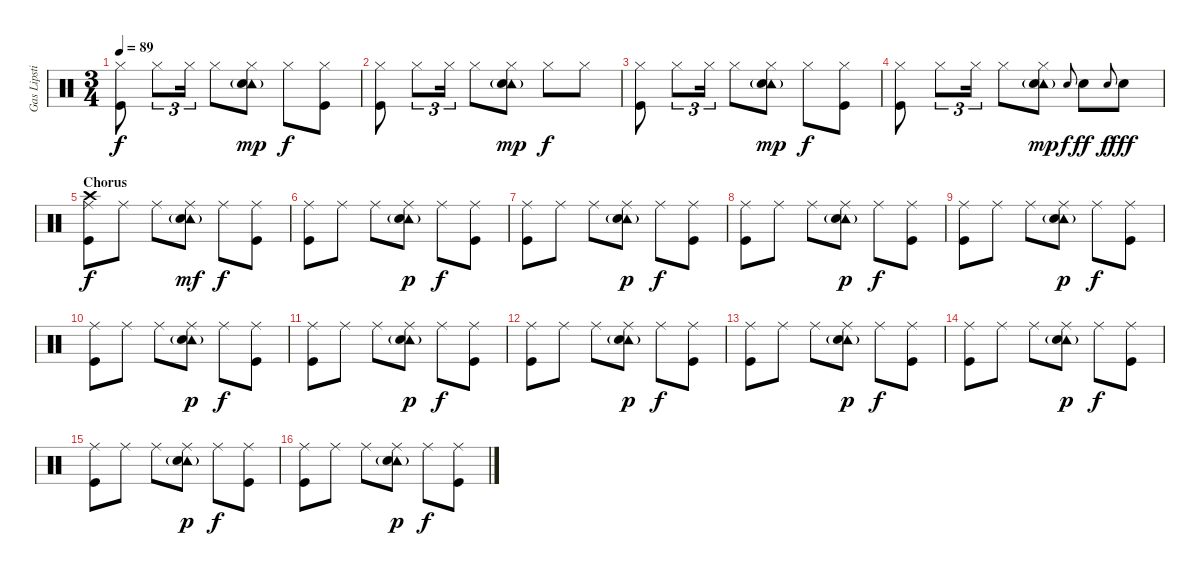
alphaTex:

\track ("Gas Lipstick (Drums)" "Gas Lipsti") {instrument percussion}
\staff {score}
\articulation defaults
\ts (3 4)
\tempo 89
\clef neutral
\ks c
("Hi-Hat (closed)" "Kick (hit)").8{dy f} "Hi-Hat (closed)".8{tu (3 2)} "Hi-Hat (closed)".16{tu (3 2)} "Hi-Hat (closed)".8 ("Tambourine (hit)"{g} "Hi-Hat (closed)" "Snare (hit) 2").8{dy mp} "Hi-Hat (closed)".8{dy f} ("Hi-Hat (closed)" "Kick (hit)").8 |
("Hi-Hat (closed)" "Kick (hit)").8 "Hi-Hat (closed)".8{tu (3 2)} "Hi-Hat (closed)".16{tu (3 2)} "Hi-Hat (closed)".8 ("Tambourine (hit)"{g} "Hi-Hat (closed)" "Snare (hit) 2").8{dy mp} "Hi-Hat (closed)".8{dy f} "Hi-Hat (closed)".8 |
("Hi-Hat (closed)" "Kick (hit)").8 "Hi-Hat (closed)".8{tu (3 2)} "Hi-Hat (closed)".16{tu (3 2)} "Hi-Hat (closed)".8 ("Tambourine (hit)"{g} "Hi-Hat (closed)" "Snare (hit) 2").8{dy mp} "Hi-Hat (closed)".8{dy f} ("Hi-Hat (closed)" "Kick (hit)").8 |
("Hi-Hat (closed)" "Kick (hit)").8 "Hi-Hat (closed)".8{tu (3 2)} "Hi-Hat (closed)".16{tu (3 2)} "Hi-Hat (closed)".8 ("Tambourine (hit)"{g} "Hi-Hat (closed)" "Snare (hit) 2").8{dy mp} "Snare (hit) 2".8{gr onbeat dy f} "Snare (hit) 2".8{dy ff} "Snare (hit) 2".8{gr onbeat dy f} "Snare (hit) 2".8{dy fff} |
\section ("" "Chorus")
("Crash high (hit)" "Ride (middle)" "Kick (hit)").8{dy f} "Ride (middle)".8 "Ride (middle)".8 ("Tambourine (hit)"{g} "Ride (middle)" "Snare (hit) 2").8{dy mf} "Ride (middle)".8{dy f} ("Ride (middle)" "Kick (hit)").8 |
("Ride (middle)" "Kick (hit)").8 "Ride (middle)".8 "Ride (middle)".8 ("Tambourine (hit)"{g} "Ride (middle)" "Snare (hit) 2").8{dy p} "Ride (middle)".8{dy f} ("Ride (middle)" "Kick (hit)").8 |
("Ride (middle)" "Kick (hit)").8 "Ride (middle)".8 "Ride (middle)".8 ("Tambourine (hit)"{g} "Ride (middle)" "Snare (hit) 2").8{dy p} "Ride (middle)".8{dy f} ("Ride (middle)" "Kick (hit)").8 |
("Ride (middle)" "Kick (hit)").8 "Ride (middle)".8 "Ride (middle)".8 ("Tambourine (hit)"{g} "Ride (middle)" "Snare (hit) 2").8{dy p} "Ride (middle)".8{dy f} ("Ride (middle)" "Kick (hit)").8 |
("Ride (middle)" "Kick (hit)").8 "Ride (middle)".8 "Ride (middle)".8 ("Tambourine (hit)"{g} "Ride (middle)" "Snare (hit) 2").8{dy p} "Ride (middle)".8{dy f} ("Ride (middle)" "Kick (hit)").8 |
("Ride (middle)" "Kick (hit)").8 "Ride (middle)".8 "Ride (middle)".8 ("Tambourine (hit)"{g} "Ride (middle)" "Snare (hit) 2").8{dy p} "Ride (middle)".8{dy f} ("Ride (middle)" "Kick (hit)").8 |
("Ride (middle)" "Kick (hit)").8 "Ride (middle)".8 "Ride (middle)".8 ("Tambourine (hit)"{g} "Ride (middle)" "Snare (hit) 2").8{dy p} "Ride (middle)".8{dy f} ("Ride (middle)" "Kick (hit)").8 |
("Ride (middle)" "Kick (hit)").8 "Ride (middle)".8 "Ride (middle)".8 ("Tambourine (hit)"{g} "Ride (middle)" "Snare (hit) 2").8{dy p} "Ride (middle)".8{dy f} ("Ride (middle)" "Kick (hit)").8 |
("Ride (middle)" "Kick (hit)").8 "Ride (middle)".8 "Ride (middle)".8 ("Tambourine (hit)"{g} "Ride (middle)" "Snare (hit) 2").8{dy p} "Ride (middle)".8{dy f} ("Ride (middle)" "Kick (hit)").8 |
("Ride (middle)" "Kick (hit)").8 "Ride (middle)".8 "Ride (middle)".8 ("Tambourine (hit)"{g} "Ride (middle)" "Snare (hit) 2").8{dy p} "Ride (middle)".8{dy f} ("Ride (middle)" "Kick (hit)").8 |
("Ride (middle)" "Kick (hit)").8 "Ride (middle)".8 "Ride (middle)".8 ("Tambourine (hit)"{g} "Ride (middle)" "Snare (hit) 2").8{dy p} "Ride (middle)".8{dy f} ("Ride (middle)" "Kick (hit)").8 |
("Ride (middle)" "Kick (hit)").8 "Ride (middle)".8 "Ride (middle)".8 ("Tambourine (hit)"{g} "Ride (middle)" "Snare (hit) 2").8{dy p} "Ride (middle)".8{dy f} ("Ride (middle)" "Kick (hit)").8
